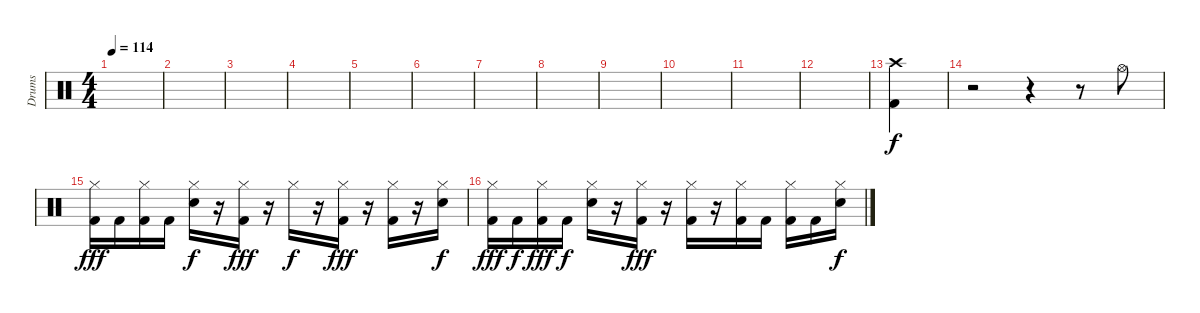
\track ("Drums" "Drums") {instrument percussion}
\staff {score}
\articulation defaults
\ts (4 4)
\tempo 114
\clef neutral
\ks c
|
|
|
|
|
|
|
|
|
|
|
|
("Kick (hit) 2" "Crash high (hit)").4 |
r.2 r.4 r.8 "Hi-Hat (open)".8{dy f} |
("Hi-Hat (closed)" "Kick (hit) 2").16{dy fff} "Kick (hit) 2".16 ("Hi-Hat (closed)" "Kick (hit) 2").16 "Kick (hit) 2".16 ("Hi-Hat (closed)" "Snare (hit) 2").16{dy f} r.16 ("Hi-Hat (closed)" "Kick (hit) 2").16{dy fff} r.16 "Hi-Hat (closed)".16{dy f} r.16 ("Hi-Hat (closed)" "Kick (hit) 2").16{dy fff} r.16 ("Hi-Hat (closed)" "Kick (hit) 2").16 r.16 ("Hi-Hat (closed)" "Snare (hit) 2").16{dy f} |
("Hi-Hat (closed)" "Kick (hit) 2").16{dy fff} "Kick (hit) 2".16{dy f} ("Hi-Hat (closed)" "Kick (hit) 2").16{dy fff} "Kick (hit) 2".16{dy f} ("Hi-Hat (closed)" "Snare (hit) 2").16 r.16 ("Hi-Hat (closed)" "Kick (hit) 2").16{dy fff} r.16 ("Hi-Hat (closed)" "Kick (hit) 2").16 r.16 ("Hi-Hat (closed)" "Kick (hit) 2").16 "Kick (hit) 2".16 ("Hi-Hat (closed)" "Kick (hit) 2").16 "Kick (hit) 2".16 ("Hi-Hat (closed)" "Snare (hit) 2").16{dy f}
